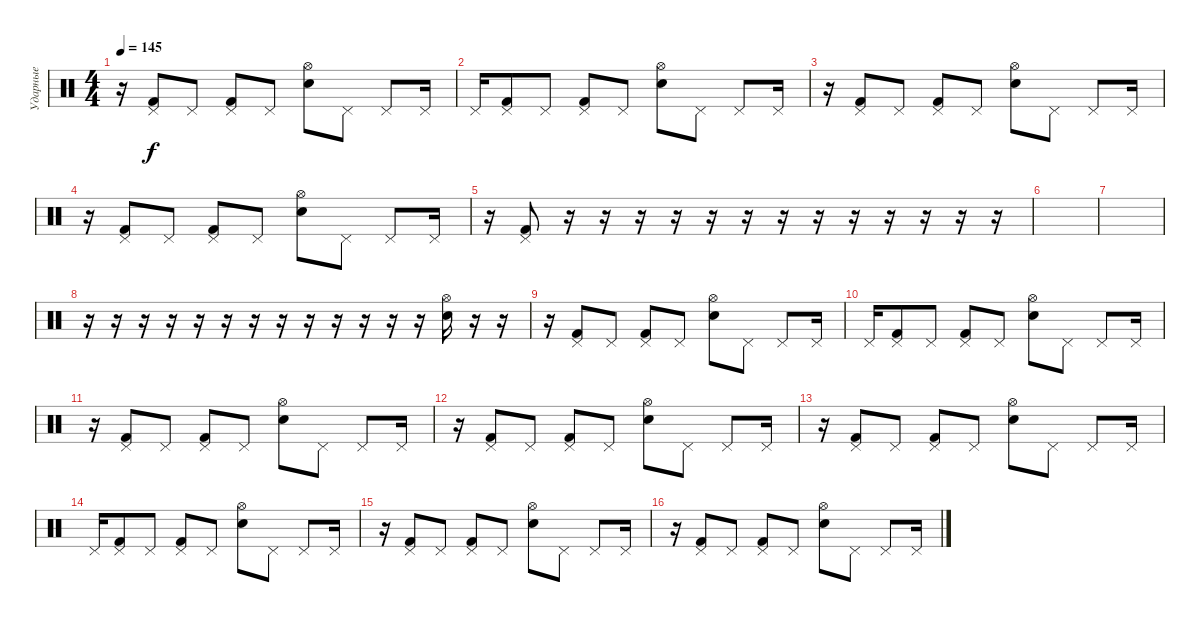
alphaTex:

\track ("Ударные" "Ударные") {instrument percussion}
\staff {score}
\articulation defaults
\ts (4 4)
\tempo 145
\clef neutral
\ks c
r.16{dy f} ("Pedal Hi-Hat (hit)" "Kick (hit) 2").8 "Pedal Hi-Hat (hit)".8 ("Pedal Hi-Hat (hit)" "Kick (hit) 2").8 "Pedal Hi-Hat (hit)".8 ("Hi-Hat (open)" "Electric Snare (hit)").8 "Pedal Hi-Hat (hit)".8 "Pedal Hi-Hat (hit)".8 "Pedal Hi-Hat (hit)".16 |
"Pedal Hi-Hat (hit)".16 ("Pedal Hi-Hat (hit)" "Kick (hit) 2").8 "Pedal Hi-Hat (hit)".8 ("Pedal Hi-Hat (hit)" "Kick (hit) 2").8 "Pedal Hi-Hat (hit)".8 ("Hi-Hat (open)" "Electric Snare (hit)").8 "Pedal Hi-Hat (hit)".8 "Pedal Hi-Hat (hit)".8 "Pedal Hi-Hat (hit)".16 |
r.16 ("Pedal Hi-Hat (hit)" "Kick (hit) 2").8 "Pedal Hi-Hat (hit)".8 ("Pedal Hi-Hat (hit)" "Kick (hit) 2").8 "Pedal Hi-Hat (hit)".8 ("Hi-Hat (open)" "Electric Snare (hit)").8 "Pedal Hi-Hat (hit)".8 "Pedal Hi-Hat (hit)".8 "Pedal Hi-Hat (hit)".16 |
r.16 ("Pedal Hi-Hat (hit)" "Kick (hit) 2").8 "Pedal Hi-Hat (hit)".8 ("Pedal Hi-Hat (hit)" "Kick (hit) 2").8 "Pedal Hi-Hat (hit)".8 ("Hi-Hat (open)" "Electric Snare (hit)").8 "Pedal Hi-Hat (hit)".8 "Pedal Hi-Hat (hit)".8 "Pedal Hi-Hat (hit)".16 |
r.16 ("Pedal Hi-Hat (hit)" "Kick (hit) 2").8 r.16 r.16 r.16 r.16 r.16 r.16 r.16 r.16 r.16 r.16 r.16 r.16 r.16 |
|
|
r.16 r.16 r.16 r.16 r.16 r.16 r.16 r.16 r.16 r.16 r.16 r.16 r.16 ("Hi-Hat (open)" "Electric Snare (hit)").16 r.16 r.16 |
r.16 ("Pedal Hi-Hat (hit)" "Kick (hit) 2").8 "Pedal Hi-Hat (hit)".8 ("Pedal Hi-Hat (hit)" "Kick (hit) 2").8 "Pedal Hi-Hat (hit)".8 ("Hi-Hat (open)" "Electric Snare (hit)").8 "Pedal Hi-Hat (hit)".8 "Pedal Hi-Hat (hit)".8 "Pedal Hi-Hat (hit)".16 |
"Pedal Hi-Hat (hit)".16 ("Pedal Hi-Hat (hit)" "Kick (hit) 2").8 "Pedal Hi-Hat (hit)".8 ("Pedal Hi-Hat (hit)" "Kick (hit) 2").8 "Pedal Hi-Hat (hit)".8 ("Hi-Hat (open)" "Electric Snare (hit)").8 "Pedal Hi-Hat (hit)".8 "Pedal Hi-Hat (hit)".8 "Pedal Hi-Hat (hit)".16 |
r.16 ("Pedal Hi-Hat (hit)" "Kick (hit) 2").8 "Pedal Hi-Hat (hit)".8 ("Pedal Hi-Hat (hit)" "Kick (hit) 2").8 "Pedal Hi-Hat (hit)".8 ("Hi-Hat (open)" "Electric Snare (hit)").8 "Pedal Hi-Hat (hit)".8 "Pedal Hi-Hat (hit)".8 "Pedal Hi-Hat (hit)".16 |
r.16 ("Pedal Hi-Hat (hit)" "Kick (hit) 2").8 "Pedal Hi-Hat (hit)".8 ("Pedal Hi-Hat (hit)" "Kick (hit) 2").8 "Pedal Hi-Hat (hit)".8 ("Hi-Hat (open)" "Electric Snare (hit)").8 "Pedal Hi-Hat (hit)".8 "Pedal Hi-Hat (hit)".8 "Pedal Hi-Hat (hit)".16 |
r.16 ("Pedal Hi-Hat (hit)" "Kick (hit) 2").8 "Pedal Hi-Hat (hit)".8 ("Pedal Hi-Hat (hit)" "Kick (hit) 2").8 "Pedal Hi-Hat (hit)".8 ("Hi-Hat (open)" "Electric Snare (hit)").8 "Pedal Hi-Hat (hit)".8 "Pedal Hi-Hat (hit)".8 "Pedal Hi-Hat (hit)".16 |
"Pedal Hi-Hat (hit)".16 ("Pedal Hi-Hat (hit)" "Kick (hit) 2").8 "Pedal Hi-Hat (hit)".8 ("Pedal Hi-Hat (hit)" "Kick (hit) 2").8 "Pedal Hi-Hat (hit)".8 ("Hi-Hat (open)" "Electric Snare (hit)").8 "Pedal Hi-Hat (hit)".8 "Pedal Hi-Hat (hit)".8 "Pedal Hi-Hat (hit)".16 |
r.16 ("Pedal Hi-Hat (hit)" "Kick (hit) 2").8 "Pedal Hi-Hat (hit)".8 ("Pedal Hi-Hat (hit)" "Kick (hit) 2").8 "Pedal Hi-Hat (hit)".8 ("Hi-Hat (open)" "Electric Snare (hit)").8 "Pedal Hi-Hat (hit)".8 "Pedal Hi-Hat (hit)".8 "Pedal Hi-Hat (hit)".16 |
r.16 ("Pedal Hi-Hat (hit)" "Kick (hit) 2").8 "Pedal Hi-Hat (hit)".8 ("Pedal Hi-Hat (hit)" "Kick (hit) 2").8 "Pedal Hi-Hat (hit)".8 ("Hi-Hat (open)" "Electric Snare (hit)").8 "Pedal Hi-Hat (hit)".8 "Pedal Hi-Hat (hit)".8 "Pedal Hi-Hat (hit)".16
